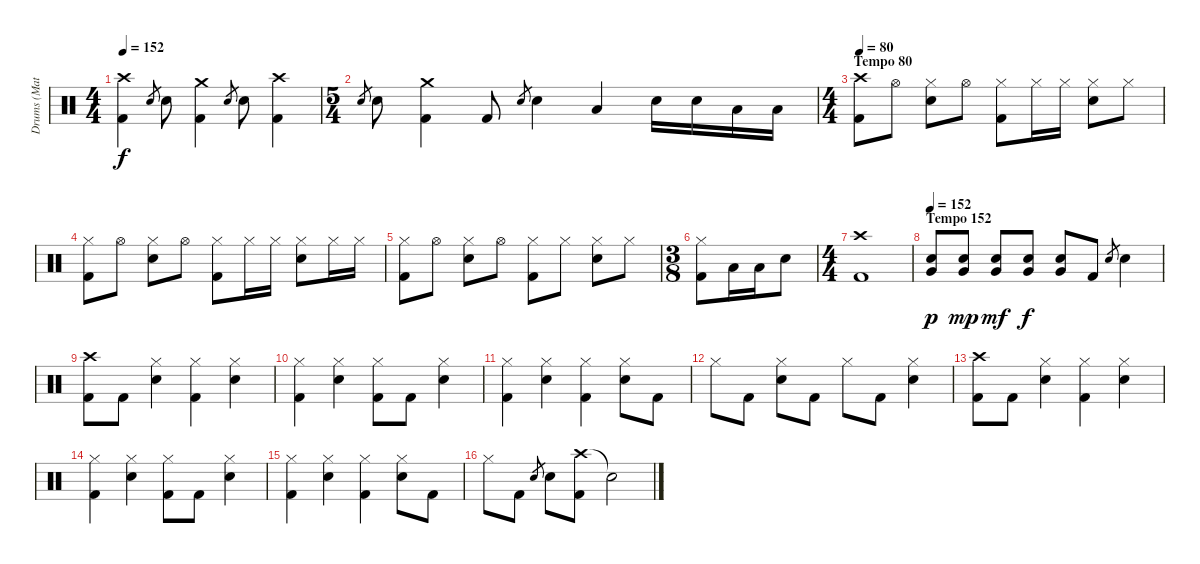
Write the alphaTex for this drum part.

\track ("Drums (Matt)" "Drums (Mat") {instrument percussion}
\staff {score}
\articulation defaults
\ts (4 4)
\tempo 152
\clef neutral
\ks c
("Crash high (hit)" "Kick (hit) 2").4{dy f} "Snare (hit) 2".8{gr} "Snare (hit) 2".8 ("Crash medium (hit)" "Kick (hit) 2").4 "Snare (hit) 2".8{gr} "Snare (hit) 2".8 ("Crash high (hit)" "Kick (hit) 2").4 |
\ts (5 4)
"Snare (hit) 2".8{gr} "Snare (hit) 2".8 ("Crash medium (hit)" "Kick (hit) 2").4 "Kick (hit) 2".8 "Snare (hit) 2".8{gr} "Snare (hit) 2".4 "Low Tom (hit)".4 "Snare (hit) 2".16 "Snare (hit) 2".16 "Low Tom (hit)".16 "Low Tom (hit)".16 |
\ts (4 4)
\section ("" "Tempo 80")
\tempo 80
("Crash high (hit)" "Kick (hit) 2").8 "Hi-Hat (open)".8 ("Hi-Hat (closed)" "Snare (hit) 2").8 "Hi-Hat (open)".8 ("Hi-Hat (closed)" "Kick (hit) 2").8 "Hi-Hat (closed)".16 "Hi-Hat (closed)".16 ("Hi-Hat (closed)" "Snare (hit) 2").8 "Hi-Hat (closed)".8 |
("Hi-Hat (closed)" "Kick (hit) 2").8 "Hi-Hat (open)".8 ("Hi-Hat (closed)" "Snare (hit) 2").8 "Hi-Hat (open)".8 ("Hi-Hat (closed)" "Kick (hit) 2").8 "Hi-Hat (closed)".16 "Hi-Hat (closed)".16 ("Hi-Hat (closed)" "Snare (hit) 2").8 "Hi-Hat (closed)".16 "Hi-Hat (closed)".16 |
("Hi-Hat (closed)" "Kick (hit) 2").8 "Hi-Hat (open)".8 ("Hi-Hat (closed)" "Snare (hit) 2").8 "Hi-Hat (open)".8 ("Hi-Hat (closed)" "Kick (hit) 2").8 "Hi-Hat (closed)".8 ("Hi-Hat (closed)" "Snare (hit) 2").8 "Hi-Hat (closed)".8 |
\ts (3 8)
("Hi-Hat (closed)" "Kick (hit) 2").8 "Low Tom (hit)".16 "Low Tom (hit)".16 "Snare (hit) 2".8 |
\ts (4 4)
("Crash high (hit)" "Kick (hit) 2").1 |
\section ("" "Tempo 152")
\tempo 152
("Very Low Tom (hit)" "Snare (hit) 2").8{dy p} ("Very Low Tom (hit)" "Snare (hit) 2").8{dy mp} ("Very Low Tom (hit)" "Snare (hit) 2").8{dy mf} ("Very Low Tom (hit)" "Snare (hit) 2").8{dy f} ("Very Low Tom (hit)" "Snare (hit) 2").8 "Kick (hit) 2".8 "Snare (hit) 2".8{gr} "Snare (hit) 2".4 |
("Crash high (hit)" "Kick (hit) 2").8 "Kick (hit) 2".8 ("Hi-Hat (closed)" "Snare (hit) 2").4 ("Hi-Hat (closed)" "Kick (hit) 2").4 ("Hi-Hat (closed)" "Snare (hit) 2").4 |
("Hi-Hat (closed)" "Kick (hit) 2").4 ("Hi-Hat (closed)" "Snare (hit) 2").4 ("Hi-Hat (closed)" "Kick (hit) 2").8 "Kick (hit) 2".8 ("Hi-Hat (closed)" "Snare (hit) 2").4 |
("Hi-Hat (closed)" "Kick (hit) 2").4 ("Hi-Hat (closed)" "Snare (hit) 2").4 ("Hi-Hat (closed)" "Kick (hit) 2").4 ("Hi-Hat (closed)" "Snare (hit) 2").8 "Kick (hit) 2".8 |
"Hi-Hat (closed)".8 "Kick (hit) 2".8 ("Hi-Hat (closed)" "Snare (hit) 2").8 "Kick (hit) 2".8 "Hi-Hat (closed)".8 "Kick (hit) 2".8 ("Hi-Hat (closed)" "Snare (hit) 2").4 |
("Crash high (hit)" "Kick (hit) 2").8 "Kick (hit) 2".8 ("Hi-Hat (closed)" "Snare (hit) 2").4 ("Hi-Hat (closed)" "Kick (hit) 2").4 ("Hi-Hat (closed)" "Snare (hit) 2").4 |
("Hi-Hat (closed)" "Kick (hit) 2").4 ("Hi-Hat (closed)" "Snare (hit) 2").4 ("Hi-Hat (closed)" "Kick (hit) 2").8 "Kick (hit) 2".8 ("Hi-Hat (closed)" "Snare (hit) 2").4 |
("Hi-Hat (closed)" "Kick (hit) 2").4 ("Hi-Hat (closed)" "Snare (hit) 2").4 ("Hi-Hat (closed)" "Kick (hit) 2").4 ("Hi-Hat (closed)" "Snare (hit) 2").8 "Kick (hit) 2".8 |
"Hi-Hat (closed)".8 "Kick (hit) 2".8 "Snare (hit) 2".8{gr} "Snare (hit) 2".8 ("Crash high (hit)" "Kick (hit) 2").8 "Snare (hit)"{t}.2
